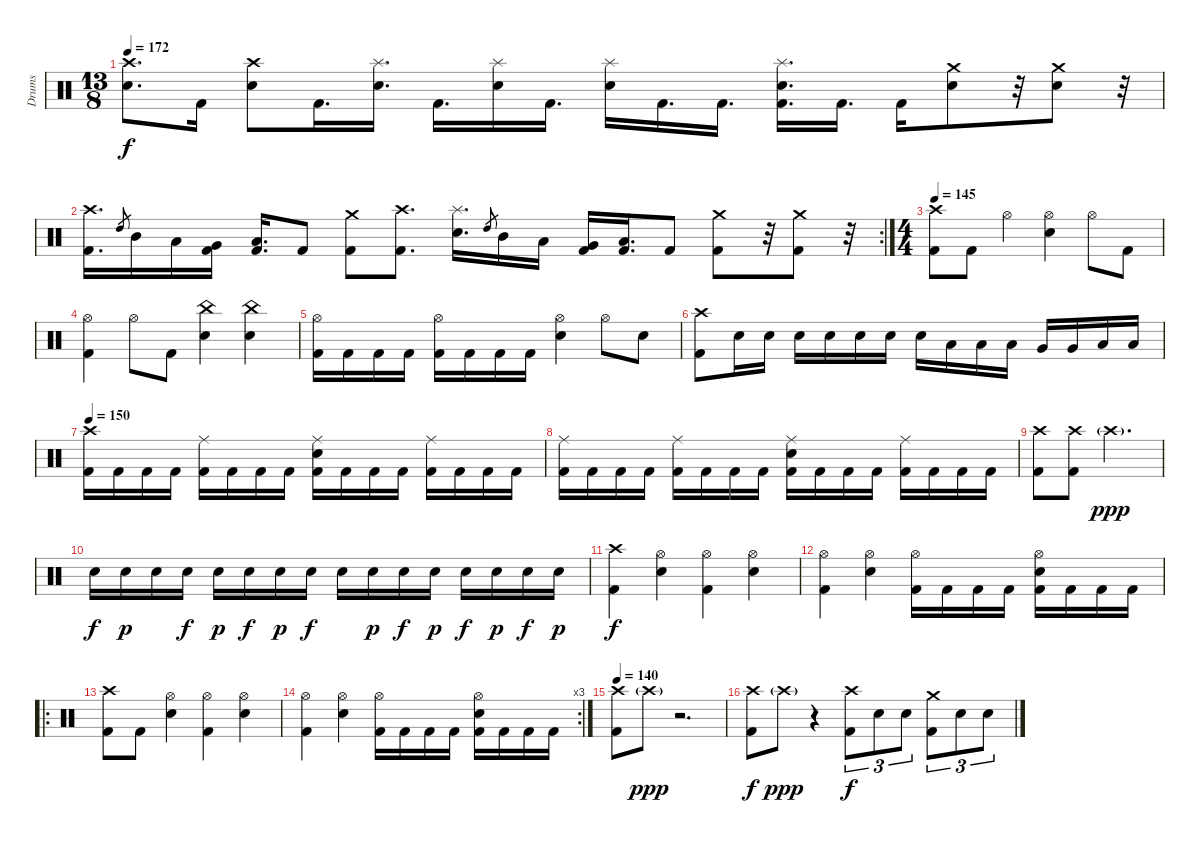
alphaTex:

\track ("Drums" "Drums") {instrument percussion}
\staff {score}
\articulation defaults
\ts (13 8)
\tempo 172
\clef neutral
\ks c
("Crash high (hit)" "Electric Snare (hit)").8{d dy f} "Kick (hit) 2".16 ("Crash high (hit)" "Electric Snare (hit)").8 "Kick (hit) 2".16{d} ("Splash (hit)" "Electric Snare (hit)").16{d} "Kick (hit) 2".16{d} ("Splash (hit)" "Electric Snare (hit)").16 "Kick (hit) 2".16{d} ("Splash (hit)" "Electric Snare (hit)").16 "Kick (hit) 2".16{d} "Kick (hit) 2".16{d} ("Splash (hit)" "Electric Snare (hit)" "Kick (hit) 2").16{d} "Kick (hit) 2".16{d} "Kick (hit) 2".16 ("Crash medium (hit)" "Electric Snare (hit)").8 r.32 ("Crash medium (hit)" "Electric Snare (hit)").8 r.32 |
\rc 2
("Crash high (hit)" "Kick (hit) 2").16{d} "High Tom (hit)".8{gr} "Mid Tom (hit)".16 "Low Tom (hit)".16 ("Very Low Tom (hit)" "Kick (hit) 2").16 ("Low Floor Tom (hit)" "Kick (hit) 2").16{d} "Kick (hit) 2".8 ("Crash medium (hit)" "Kick (hit) 2").8 ("Crash high (hit)" "Kick (hit) 2").8{d} ("Splash (hit)" "Electric Snare (hit)").16{d} "High Tom (hit)".8{gr} "Mid Tom (hit)".16 "Low Tom (hit)".16 ("Very Low Tom (hit)" "Kick (hit) 2").16 ("Low Floor Tom (hit)" "Kick (hit) 2").16{d} "Kick (hit) 2".8 ("Crash medium (hit)" "Kick (hit) 2").8 r.32 ("Crash medium (hit)" "Kick (hit) 2").8 r.32 |
\ts (4 4)
\tempo 145
("Crash high (hit)" "Kick (hit) 2").8 "Kick (hit) 2".8 "Hi-Hat (open)".4 ("Hi-Hat (open)" "Electric Snare (hit)").4 "Hi-Hat (open)".8 "Kick (hit) 2".8 |
("Hi-Hat (open)" "Kick (hit) 2").4 "Hi-Hat (open)".8 "Kick (hit) 2".8 ("China (hit)" "Electric Snare (hit)").4 ("China (hit)" "Electric Snare (hit)").4 |
("Hi-Hat (open)" "Kick (hit) 2").16 "Kick (hit) 2".16 "Kick (hit) 2".16 "Kick (hit) 2".16 ("Hi-Hat (open)" "Kick (hit) 2").16 "Kick (hit) 2".16 "Kick (hit) 2".16 "Kick (hit) 2".16 ("Hi-Hat (open)" "Electric Snare (hit)").4 "Hi-Hat (open)".8 "Electric Snare (hit)".8 |
("Crash high (hit)" "Kick (hit) 2").8 "Electric Snare (hit)".16 "Electric Snare (hit)".16 "Electric Snare (hit)".16 "Electric Snare (hit)".16 "Electric Snare (hit)".16 "Electric Snare (hit)".16 "Electric Snare (hit)".16 "Low Tom (hit)".16 "Low Tom (hit)".16 "Low Tom (hit)".16 "Very Low Tom (hit)".16 "Very Low Tom (hit)".16 "Low Floor Tom (hit)".16 "Low Floor Tom (hit)".16 |
\tempo 150
("Crash high (hit)" "Kick (hit) 2").16 "Kick (hit) 2".16 "Kick (hit) 2".16 "Kick (hit) 2".16 ("Ride (middle)" "Kick (hit) 2").16 "Kick (hit) 2".16 "Kick (hit) 2".16 "Kick (hit) 2".16 ("Ride (middle)" "Electric Snare (hit)" "Kick (hit) 2").16 "Kick (hit) 2".16 "Kick (hit) 2".16 "Kick (hit) 2".16 ("Ride (middle)" "Kick (hit) 2").16 "Kick (hit) 2".16 "Kick (hit) 2".16 "Kick (hit) 2".16 |
("Ride (middle)" "Kick (hit) 2").16 "Kick (hit) 2".16 "Kick (hit) 2".16 "Kick (hit) 2".16 ("Ride (middle)" "Kick (hit) 2").16 "Kick (hit) 2".16 "Kick (hit) 2".16 "Kick (hit) 2".16 ("Ride (middle)" "Electric Snare (hit)" "Kick (hit) 2").16 "Kick (hit) 2".16 "Kick (hit) 2".16 "Kick (hit) 2".16 ("Ride (middle)" "Kick (hit) 2").16 "Kick (hit) 2".16 "Kick (hit) 2".16 "Kick (hit) 2".16 |
("Crash high (hit)" "Kick (hit) 2").8 ("Crash high (hit)" "Kick (hit) 2").8 "Crash high (hit)"{g}.2{d dy ppp} |
"Electric Snare (hit)".16{dy f} "Electric Snare (hit)".16{dy p} "Electric Snare (hit)".16 "Electric Snare (hit)".16{dy f} "Electric Snare (hit)".16{dy p} "Electric Snare (hit)".16{dy f} "Electric Snare (hit)".16{dy p} "Electric Snare (hit)".16{dy f} "Electric Snare (hit)".16 "Electric Snare (hit)".16{dy p} "Electric Snare (hit)".16{dy f} "Electric Snare (hit)".16{dy p} "Electric Snare (hit)".16{dy f} "Electric Snare (hit)".16{dy p} "Electric Snare (hit)".16{dy f} "Electric Snare (hit)".16{dy p} |
("Crash high (hit)" "Kick (hit) 2").4{dy f} ("Hi-Hat (open)" "Electric Snare (hit)").4 ("Hi-Hat (open)" "Kick (hit) 2").4 ("Hi-Hat (open)" "Electric Snare (hit)").4 |
("Hi-Hat (open)" "Kick (hit) 2").4 ("Hi-Hat (open)" "Electric Snare (hit)").4 ("Hi-Hat (open)" "Kick (hit) 2").16 "Kick (hit) 2".16 "Kick (hit) 2".16 "Kick (hit) 2".16 ("Hi-Hat (open)" "Electric Snare (hit)" "Kick (hit) 2").16 "Kick (hit) 2".16 "Kick (hit) 2".16 "Kick (hit) 2".16 |
\ro
("Crash high (hit)" "Kick (hit) 2").8 "Kick (hit) 2".8 ("Hi-Hat (open)" "Electric Snare (hit)").4 ("Hi-Hat (open)" "Kick (hit) 2").4 ("Hi-Hat (open)" "Electric Snare (hit)").4 |
\rc 3
("Hi-Hat (open)" "Kick (hit) 2").4 ("Hi-Hat (open)" "Electric Snare (hit)").4 ("Hi-Hat (open)" "Kick (hit) 2").16 "Kick (hit) 2".16 "Kick (hit) 2".16 "Kick (hit) 2".16 ("Hi-Hat (open)" "Electric Snare (hit)" "Kick (hit) 2").16 "Kick (hit) 2".16 "Kick (hit) 2".16 "Kick (hit) 2".16 |
\tempo 140
("Crash high (hit)" "Kick (hit) 2").8 "Crash high (hit)"{g}.8{dy ppp} r.2{d} |
("Crash high (hit)" "Kick (hit) 2").8{dy f} "Crash high (hit)"{g}.8{dy ppp} r.4 ("Crash high (hit)" "Kick (hit) 2").8{tu (3 2) dy f} "Electric Snare (hit)".8{tu (3 2)} "Electric Snare (hit)".8{tu (3 2)} ("Crash medium (hit)" "Kick (hit) 2").8{tu (3 2)} "Electric Snare (hit)".8{tu (3 2)} "Electric Snare (hit)".8{tu (3 2)}
